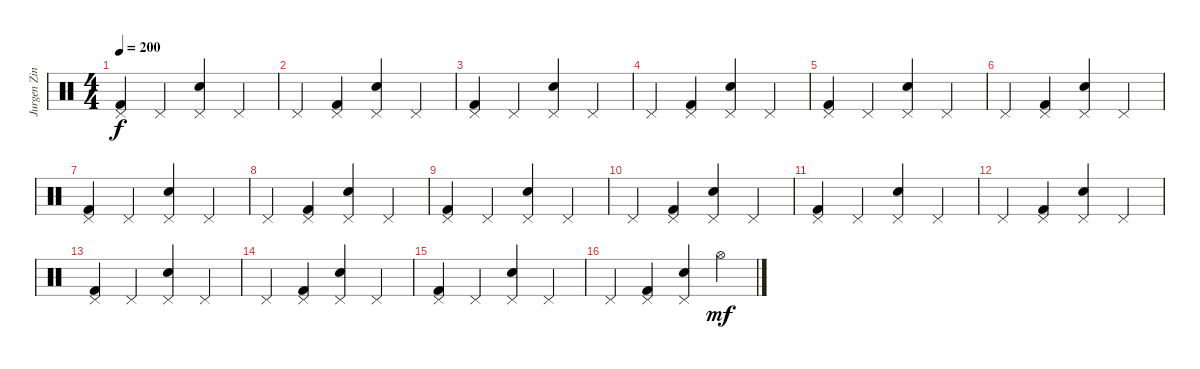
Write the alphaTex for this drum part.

\track ("Jurgen Zink" "Jurgen Zin") {instrument percussion}
\staff {score}
\articulation defaults
\ts (4 4)
\tempo 200
\clef neutral
\ks c
("Pedal Hi-Hat (hit)" "Kick (hit) 2").4{dy f} "Pedal Hi-Hat (hit)".4 ("Pedal Hi-Hat (hit)" "Electric Snare (hit)").4 "Pedal Hi-Hat (hit)".4 |
"Pedal Hi-Hat (hit)".4 ("Pedal Hi-Hat (hit)" "Kick (hit) 2").4 ("Pedal Hi-Hat (hit)" "Electric Snare (hit)").4 "Pedal Hi-Hat (hit)".4 |
("Pedal Hi-Hat (hit)" "Kick (hit) 2").4 "Pedal Hi-Hat (hit)".4 ("Pedal Hi-Hat (hit)" "Electric Snare (hit)").4 "Pedal Hi-Hat (hit)".4 |
"Pedal Hi-Hat (hit)".4 ("Pedal Hi-Hat (hit)" "Kick (hit) 2").4 ("Pedal Hi-Hat (hit)" "Electric Snare (hit)").4 "Pedal Hi-Hat (hit)".4 |
("Pedal Hi-Hat (hit)" "Kick (hit) 2").4 "Pedal Hi-Hat (hit)".4 ("Pedal Hi-Hat (hit)" "Electric Snare (hit)").4 "Pedal Hi-Hat (hit)".4 |
"Pedal Hi-Hat (hit)".4 ("Pedal Hi-Hat (hit)" "Kick (hit) 2").4 ("Pedal Hi-Hat (hit)" "Electric Snare (hit)").4 "Pedal Hi-Hat (hit)".4 |
("Pedal Hi-Hat (hit)" "Kick (hit) 2").4 "Pedal Hi-Hat (hit)".4 ("Pedal Hi-Hat (hit)" "Electric Snare (hit)").4 "Pedal Hi-Hat (hit)".4 |
"Pedal Hi-Hat (hit)".4 ("Pedal Hi-Hat (hit)" "Kick (hit) 2").4 ("Pedal Hi-Hat (hit)" "Electric Snare (hit)").4 "Pedal Hi-Hat (hit)".4 |
("Pedal Hi-Hat (hit)" "Kick (hit) 2").4 "Pedal Hi-Hat (hit)".4 ("Pedal Hi-Hat (hit)" "Electric Snare (hit)").4 "Pedal Hi-Hat (hit)".4 |
"Pedal Hi-Hat (hit)".4 ("Pedal Hi-Hat (hit)" "Kick (hit) 2").4 ("Pedal Hi-Hat (hit)" "Electric Snare (hit)").4 "Pedal Hi-Hat (hit)".4 |
("Pedal Hi-Hat (hit)" "Kick (hit) 2").4 "Pedal Hi-Hat (hit)".4 ("Pedal Hi-Hat (hit)" "Electric Snare (hit)").4 "Pedal Hi-Hat (hit)".4 |
"Pedal Hi-Hat (hit)".4 ("Pedal Hi-Hat (hit)" "Kick (hit) 2").4 ("Pedal Hi-Hat (hit)" "Electric Snare (hit)").4 "Pedal Hi-Hat (hit)".4 |
("Pedal Hi-Hat (hit)" "Kick (hit) 2").4 "Pedal Hi-Hat (hit)".4 ("Pedal Hi-Hat (hit)" "Electric Snare (hit)").4 "Pedal Hi-Hat (hit)".4 |
"Pedal Hi-Hat (hit)".4 ("Pedal Hi-Hat (hit)" "Kick (hit) 2").4 ("Pedal Hi-Hat (hit)" "Electric Snare (hit)").4 "Pedal Hi-Hat (hit)".4 |
("Pedal Hi-Hat (hit)" "Kick (hit) 2").4 "Pedal Hi-Hat (hit)".4 ("Pedal Hi-Hat (hit)" "Electric Snare (hit)").4 "Pedal Hi-Hat (hit)".4 |
"Pedal Hi-Hat (hit)".4 ("Pedal Hi-Hat (hit)" "Kick (hit) 2").4 ("Pedal Hi-Hat (hit)" "Electric Snare (hit)").4 "Hi-Hat (open)".4{dy mf}
